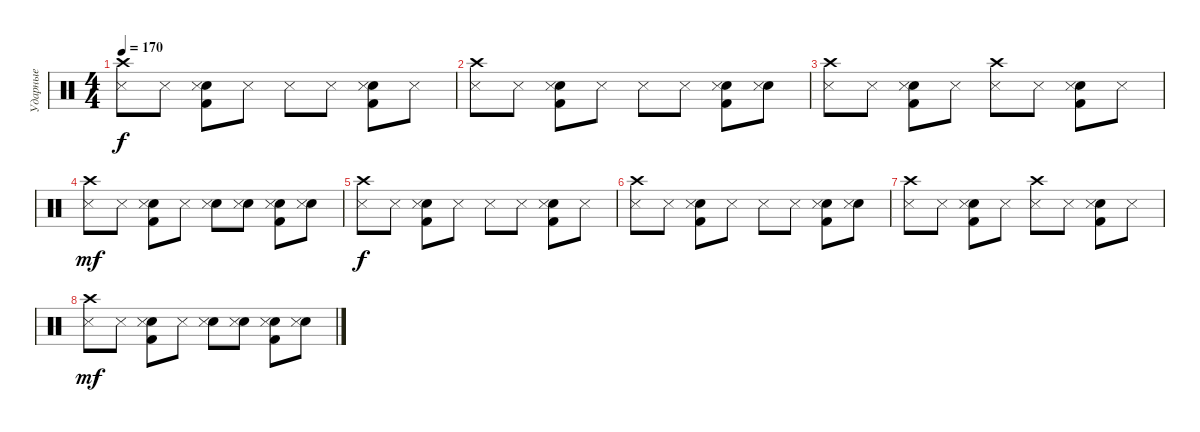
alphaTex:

\track ("Ударные" "Ударные") {instrument percussion}
\staff {score}
\articulation defaults
\ts (4 4)
\tempo 170
\clef neutral
\ks c
("Crash high (hit)" "Snare (side stick) 3").8{dy f} "Snare (side stick) 3".8 ("Kick (hit) 2" "Snare (hit) 2" "Snare (side stick) 3").8 "Snare (side stick) 3".8 "Snare (side stick) 3".8 "Snare (side stick) 3".8 ("Kick (hit) 2" "Snare (hit) 2" "Snare (side stick) 3").8 "Snare (side stick) 3".8 |
("Crash high (hit)" "Snare (side stick) 3").8 "Snare (side stick) 3".8 ("Kick (hit) 2" "Snare (hit) 2" "Snare (side stick) 3").8 "Snare (side stick) 3".8 "Snare (side stick) 3".8 "Snare (side stick) 3".8 ("Kick (hit) 2" "Snare (hit) 2" "Snare (side stick) 3").8 ("Snare (hit) 2" "Snare (side stick) 3").8 |
("Crash high (hit)" "Snare (side stick) 3").8 "Snare (side stick) 3".8 ("Kick (hit) 2" "Snare (hit) 2" "Snare (side stick) 3").8 "Snare (side stick) 3".8 ("Crash high (hit)" "Snare (side stick) 3").8 "Snare (side stick) 3".8 ("Kick (hit) 2" "Snare (hit) 2" "Snare (side stick) 3").8 "Snare (side stick) 3".8 |
("Crash high (hit)" "Snare (side stick) 3").8{dy mf} "Snare (side stick) 3".8 ("Kick (hit) 2" "Snare (hit) 2" "Snare (side stick) 3").8 "Snare (side stick) 3".8 ("Snare (hit) 2" "Snare (side stick) 3").8 ("Snare (hit) 2" "Snare (side stick) 3").8 ("Kick (hit) 2" "Snare (hit) 2" "Snare (side stick) 3").8 ("Snare (hit) 2" "Snare (side stick) 3").8 |
("Crash high (hit)" "Snare (side stick) 3").8{dy f} "Snare (side stick) 3".8 ("Kick (hit) 2" "Snare (hit) 2" "Snare (side stick) 3").8 "Snare (side stick) 3".8 "Snare (side stick) 3".8 "Snare (side stick) 3".8 ("Kick (hit) 2" "Snare (hit) 2" "Snare (side stick) 3").8 "Snare (side stick) 3".8 |
("Crash high (hit)" "Snare (side stick) 3").8 "Snare (side stick) 3".8 ("Kick (hit) 2" "Snare (hit) 2" "Snare (side stick) 3").8 "Snare (side stick) 3".8 "Snare (side stick) 3".8 "Snare (side stick) 3".8 ("Kick (hit) 2" "Snare (hit) 2" "Snare (side stick) 3").8 ("Snare (hit) 2" "Snare (side stick) 3").8 |
("Crash high (hit)" "Snare (side stick) 3").8 "Snare (side stick) 3".8 ("Kick (hit) 2" "Snare (hit) 2" "Snare (side stick) 3").8 "Snare (side stick) 3".8 ("Crash high (hit)" "Snare (side stick) 3").8 "Snare (side stick) 3".8 ("Kick (hit) 2" "Snare (hit) 2" "Snare (side stick) 3").8 "Snare (side stick) 3".8 |
("Crash high (hit)" "Snare (side stick) 3").8{dy mf} "Snare (side stick) 3".8 ("Kick (hit) 2" "Snare (hit) 2" "Snare (side stick) 3").8 "Snare (side stick) 3".8 ("Snare (hit) 2" "Snare (side stick) 3").8 ("Snare (hit) 2" "Snare (side stick) 3").8 ("Kick (hit) 2" "Snare (hit) 2" "Snare (side stick) 3").8 ("Snare (hit) 2" "Snare (side stick) 3").8
